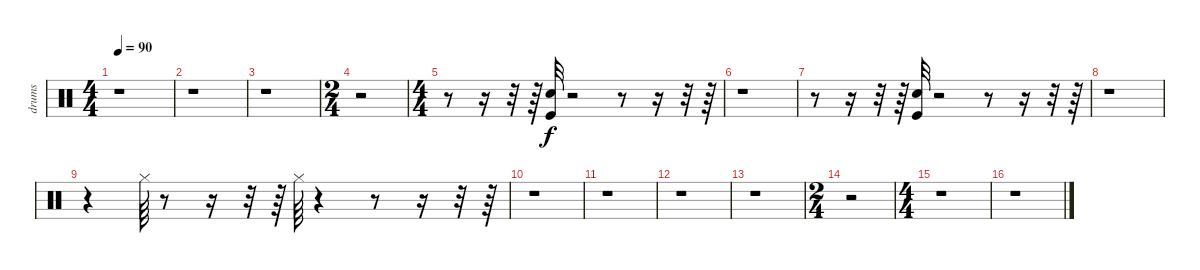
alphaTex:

\track ("drums" "drums") {instrument percussion}
\staff {score}
\articulation defaults
\ts (4 4)
\tempo 90
\clef neutral
\ks c
r.1{dy f} |
r.1 |
r.1 |
\ts (2 4)
r.2 |
\ts (4 4)
r.8 r.16 r.32 r.64 ("Snare (hit) 2" "Kick (hit)").32 r.2 r.8 r.16 r.32 r.64 |
r.1 |
r.8 r.16 r.32 r.64 ("Snare (hit) 2" "Kick (hit)").32 r.2 r.8 r.16 r.32 r.64 |
r.1 |
r.4 "Hi-Hat (closed)".64 r.8 r.16 r.32 r.64 "Hi-Hat (closed)".64 r.4 r.8 r.16 r.32 r.64 |
r.1 |
r.1 |
r.1 |
r.1 |
\ts (2 4)
r.2 |
\ts (4 4)
r.1 |
r.1
